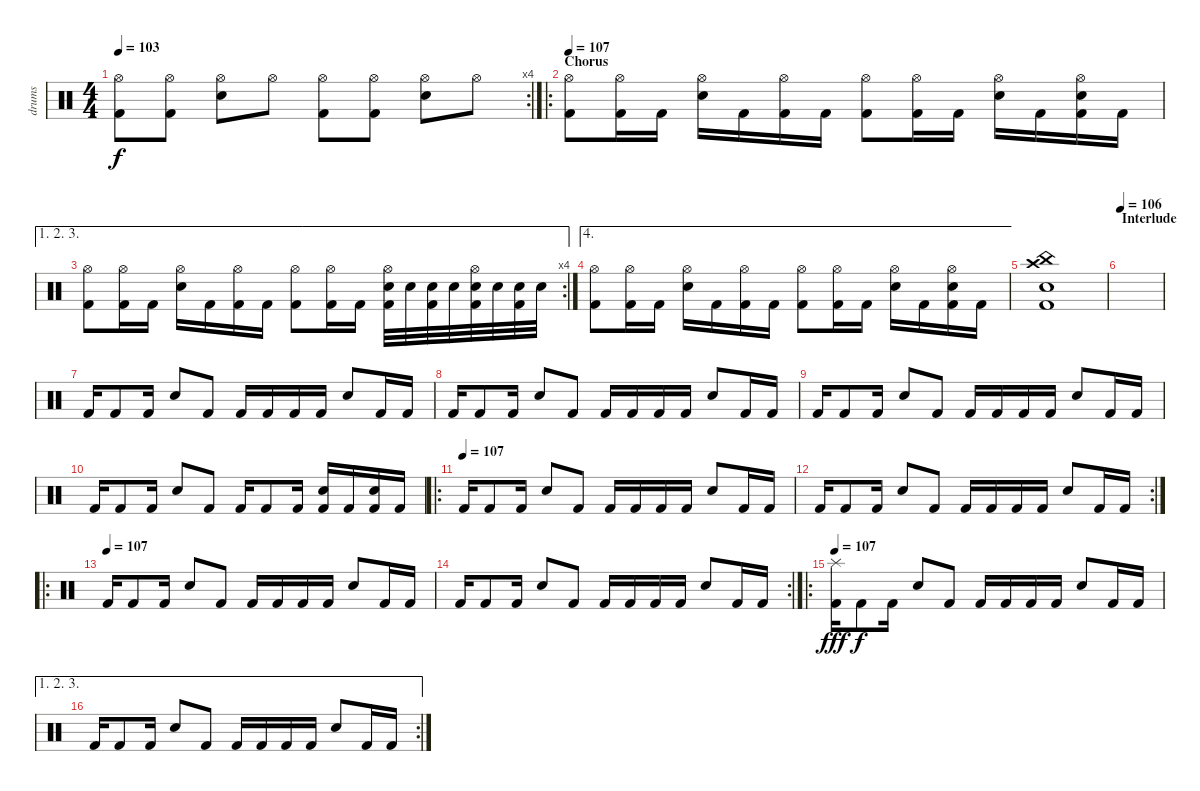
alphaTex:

\track ("drums" "drums") {instrument percussion}
\staff {score}
\articulation defaults
\rc 4
\ts (4 4)
\tempo 103
\clef neutral
\ks c
("Hi-Hat (open)" "Kick (hit) 2").8{dy f} ("Hi-Hat (open)" "Kick (hit) 2").8 ("Hi-Hat (open)" "Electric Snare (hit)").8 "Hi-Hat (open)".8 ("Hi-Hat (open)" "Kick (hit) 2").8 ("Hi-Hat (open)" "Kick (hit) 2").8 ("Hi-Hat (open)" "Electric Snare (hit)").8 "Hi-Hat (open)".8 |
\ro
\section ("" "Chorus")
\tempo 107
("Hi-Hat (open)" "Kick (hit) 2").8 ("Hi-Hat (open)" "Kick (hit) 2").16 "Kick (hit) 2".16 ("Hi-Hat (open)" "Electric Snare (hit)").16 "Kick (hit) 2".16 ("Hi-Hat (open)" "Kick (hit) 2").16 "Kick (hit) 2".16 ("Hi-Hat (open)" "Kick (hit) 2").8 ("Hi-Hat (open)" "Kick (hit) 2").16 "Kick (hit) 2".16 ("Hi-Hat (open)" "Electric Snare (hit)").16 "Kick (hit) 2".16 ("Hi-Hat (open)" "Electric Snare (hit)" "Kick (hit) 2").16 "Kick (hit) 2".16 |
\ae (1 2 3)
\rc 4
("Hi-Hat (open)" "Kick (hit) 2").8 ("Hi-Hat (open)" "Kick (hit) 2").16 "Kick (hit) 2".16 ("Hi-Hat (open)" "Electric Snare (hit)").16 "Kick (hit) 2".16 ("Hi-Hat (open)" "Kick (hit) 2").16 "Kick (hit) 2".16 ("Hi-Hat (open)" "Kick (hit) 2").8 ("Hi-Hat (open)" "Kick (hit) 2").16 "Kick (hit) 2".16 ("Hi-Hat (open)" "Electric Snare (hit)" "Kick (hit) 2").32 "Electric Snare (hit)".32 ("Electric Snare (hit)" "Kick (hit) 2").32 "Electric Snare (hit)".32 ("Hi-Hat (open)" "Electric Snare (hit)" "Kick (hit) 2").32 "Electric Snare (hit)".32 ("Electric Snare (hit)" "Kick (hit) 2").32 "Electric Snare (hit)".32 |
\ae 4
("Hi-Hat (open)" "Kick (hit) 2").8 ("Hi-Hat (open)" "Kick (hit) 2").16 "Kick (hit) 2".16 ("Hi-Hat (open)" "Electric Snare (hit)").16 "Kick (hit) 2".16 ("Hi-Hat (open)" "Kick (hit) 2").16 "Kick (hit) 2".16 ("Hi-Hat (open)" "Kick (hit) 2").8 ("Hi-Hat (open)" "Kick (hit) 2").16 "Kick (hit) 2".16 ("Hi-Hat (open)" "Electric Snare (hit)").16 "Kick (hit) 2".16 ("Hi-Hat (open)" "Electric Snare (hit)" "Kick (hit) 2").16 "Kick (hit) 2".16 |
("China (hit)" "Electric Snare (hit)" "Crash high (hit)" "Kick (hit) 2").1 |
\section ("" "Interlude")
\tempo 106
|
"Kick (hit) 2".16 "Kick (hit) 2".8 "Kick (hit) 2".16 "Electric Snare (hit)".8 "Kick (hit) 2".8 "Kick (hit) 2".16 "Kick (hit) 2".16 "Kick (hit) 2".16 "Kick (hit) 2".16 "Electric Snare (hit)".8 "Kick (hit) 2".16 "Kick (hit) 2".16 |
"Kick (hit) 2".16 "Kick (hit) 2".8 "Kick (hit) 2".16 "Electric Snare (hit)".8 "Kick (hit) 2".8 "Kick (hit) 2".16 "Kick (hit) 2".16 "Kick (hit) 2".16 "Kick (hit) 2".16 "Electric Snare (hit)".8 "Kick (hit) 2".16 "Kick (hit) 2".16 |
"Kick (hit) 2".16 "Kick (hit) 2".8 "Kick (hit) 2".16 "Electric Snare (hit)".8 "Kick (hit) 2".8 "Kick (hit) 2".16 "Kick (hit) 2".16 "Kick (hit) 2".16 "Kick (hit) 2".16 "Electric Snare (hit)".8 "Kick (hit) 2".16 "Kick (hit) 2".16 |
"Kick (hit) 2".16 "Kick (hit) 2".8 "Kick (hit) 2".16 "Electric Snare (hit)".8 "Kick (hit) 2".8 "Kick (hit) 2".16 "Kick (hit) 2".8 "Kick (hit) 2".16 ("Electric Snare (hit)" "Kick (hit) 2").16 "Kick (hit) 2".16 ("Electric Snare (hit)" "Kick (hit) 2").16 "Kick (hit) 2".16 |
\ro
\tempo (107)
"Kick (hit) 2".16 "Kick (hit) 2".8 "Kick (hit) 2".16 "Electric Snare (hit)".8 "Kick (hit) 2".8 "Kick (hit) 2".16 "Kick (hit) 2".16 "Kick (hit) 2".16 "Kick (hit) 2".16 "Electric Snare (hit)".8 "Kick (hit) 2".16 "Kick (hit) 2".16 |
\rc 2 "Kick (hit) 2".16 "Kick (hit) 2".8 "Kick (hit) 2".16 "Electric Snare (hit)".8 "Kick (hit) 2".8 "Kick (hit) 2".16 "Kick (hit) 2".16 "Kick (hit) 2".16 "Kick (hit) 2".16 "Electric Snare (hit)".8 "Kick (hit) 2".16 "Kick (hit) 2".16
|
\ro
\tempo (107)
"Kick (hit) 2".16 "Kick (hit) 2".8 "Kick (hit) 2".16 "Electric Snare (hit)".8 "Kick (hit) 2".8 "Kick (hit) 2".16 "Kick (hit) 2".16 "Kick (hit) 2".16 "Kick (hit) 2".16 "Electric Snare (hit)".8 "Kick (hit) 2".16 "Kick (hit) 2".16 |
\rc 2 "Kick (hit) 2".16 "Kick (hit) 2".8 "Kick (hit) 2".16 "Electric Snare (hit)".8 "Kick (hit) 2".8 "Kick (hit) 2".16 "Kick (hit) 2".16 "Kick (hit) 2".16 "Kick (hit) 2".16 "Electric Snare (hit)".8 "Kick (hit) 2".16 "Kick (hit) 2".16
|
\ro
\tempo 107
("Splash (hit)" "Kick (hit) 2").16{dy fff} "Kick (hit) 2".8{dy f} "Kick (hit) 2".16 "Electric Snare (hit)".8 "Kick (hit) 2".8 "Kick (hit) 2".16 "Kick (hit) 2".16 "Kick (hit) 2".16 "Kick (hit) 2".16 "Electric Snare (hit)".8 "Kick (hit) 2".16 "Kick (hit) 2".16 |
\ae (1 2 3)
\rc 2 "Kick (hit) 2".16 "Kick (hit) 2".8 "Kick (hit) 2".16 "Electric Snare (hit)".8 "Kick (hit) 2".8 "Kick (hit) 2".16 "Kick (hit) 2".16 "Kick (hit) 2".16 "Kick (hit) 2".16 "Electric Snare (hit)".8 "Kick (hit) 2".16 "Kick (hit) 2".16
